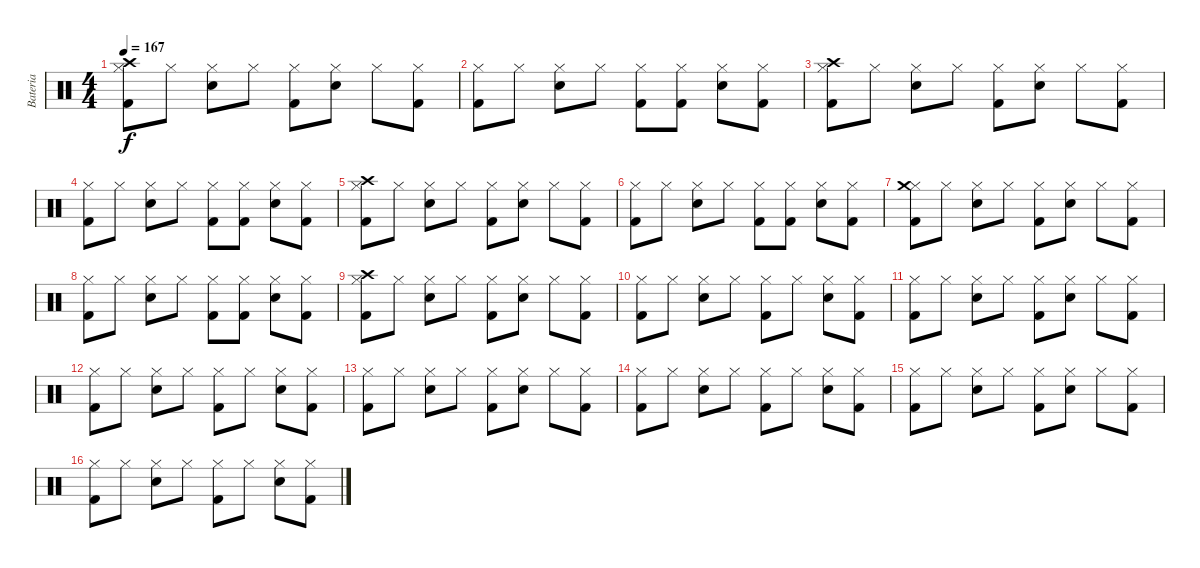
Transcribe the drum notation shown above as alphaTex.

\track ("Bateria" "Bateria") {instrument percussion}
\staff {score}
\articulation defaults
\ts (4 4)
\tempo 167
\clef neutral
\ks c
("Kick (hit) 2" "Hi-Hat (closed)" "Crash high (hit)").8{dy f} "Hi-Hat (closed)".8 ("Snare (hit) 2" "Hi-Hat (closed)").8 "Hi-Hat (closed)".8 ("Kick (hit) 2" "Hi-Hat (closed)").8 ("Snare (hit) 2" "Hi-Hat (closed)").8 "Hi-Hat (closed)".8 ("Kick (hit) 2" "Hi-Hat (closed)").8 |
("Kick (hit) 2" "Hi-Hat (closed)").8 "Hi-Hat (closed)".8 ("Snare (hit) 2" "Hi-Hat (closed)").8 "Hi-Hat (closed)".8 ("Kick (hit) 2" "Hi-Hat (closed)").8 ("Kick (hit) 2" "Hi-Hat (closed)").8 ("Snare (hit) 2" "Hi-Hat (closed)").8 ("Kick (hit) 2" "Hi-Hat (closed)").8 |
("Kick (hit) 2" "Hi-Hat (closed)" "Crash high (hit)").8 "Hi-Hat (closed)".8 ("Snare (hit) 2" "Hi-Hat (closed)").8 "Hi-Hat (closed)".8 ("Kick (hit) 2" "Hi-Hat (closed)").8 ("Snare (hit) 2" "Hi-Hat (closed)").8 "Hi-Hat (closed)".8 ("Kick (hit) 2" "Hi-Hat (closed)").8 |
("Kick (hit) 2" "Hi-Hat (closed)").8 "Hi-Hat (closed)".8 ("Snare (hit) 2" "Hi-Hat (closed)").8 "Hi-Hat (closed)".8 ("Kick (hit) 2" "Hi-Hat (closed)").8 ("Kick (hit) 2" "Hi-Hat (closed)").8 ("Snare (hit) 2" "Hi-Hat (closed)").8 ("Kick (hit) 2" "Hi-Hat (closed)").8 |
("Kick (hit) 2" "Hi-Hat (closed)" "Crash high (hit)").8 "Hi-Hat (closed)".8 ("Snare (hit) 2" "Hi-Hat (closed)").8 "Hi-Hat (closed)".8 ("Kick (hit) 2" "Hi-Hat (closed)").8 ("Snare (hit) 2" "Hi-Hat (closed)").8 "Hi-Hat (closed)".8 ("Kick (hit) 2" "Hi-Hat (closed)").8 |
("Kick (hit) 2" "Hi-Hat (closed)").8 "Hi-Hat (closed)".8 ("Snare (hit) 2" "Hi-Hat (closed)").8 "Hi-Hat (closed)".8 ("Kick (hit) 2" "Hi-Hat (closed)").8 ("Kick (hit) 2" "Hi-Hat (closed)").8 ("Snare (hit) 2" "Hi-Hat (closed)").8 ("Kick (hit) 2" "Hi-Hat (closed)").8 |
("Kick (hit) 2" "Hi-Hat (closed)" "Crash medium (hit)").8 "Hi-Hat (closed)".8 ("Snare (hit) 2" "Hi-Hat (closed)").8 "Hi-Hat (closed)".8 ("Kick (hit) 2" "Hi-Hat (closed)").8 ("Snare (hit) 2" "Hi-Hat (closed)").8 "Hi-Hat (closed)".8 ("Kick (hit) 2" "Hi-Hat (closed)").8 |
("Kick (hit) 2" "Hi-Hat (closed)").8 "Hi-Hat (closed)".8 ("Snare (hit) 2" "Hi-Hat (closed)").8 "Hi-Hat (closed)".8 ("Kick (hit) 2" "Hi-Hat (closed)").8 ("Kick (hit) 2" "Hi-Hat (closed)").8 ("Snare (hit) 2" "Hi-Hat (closed)").8 ("Kick (hit) 2" "Hi-Hat (closed)").8 |
("Kick (hit) 2" "Hi-Hat (closed)" "Crash high (hit)").8 "Hi-Hat (closed)".8 ("Snare (hit) 2" "Hi-Hat (closed)").8 "Hi-Hat (closed)".8 ("Kick (hit) 2" "Hi-Hat (closed)").8 ("Snare (hit) 2" "Hi-Hat (closed)").8 "Hi-Hat (closed)".8 ("Kick (hit) 2" "Hi-Hat (closed)").8 |
("Kick (hit) 2" "Hi-Hat (closed)").8 "Hi-Hat (closed)".8 ("Snare (hit) 2" "Hi-Hat (closed)").8 "Hi-Hat (closed)".8 ("Kick (hit) 2" "Hi-Hat (closed)").8 "Hi-Hat (closed)".8 ("Snare (hit) 2" "Hi-Hat (closed)").8 ("Kick (hit) 2" "Hi-Hat (closed)").8 |
("Kick (hit) 2" "Hi-Hat (closed)").8 "Hi-Hat (closed)".8 ("Snare (hit) 2" "Hi-Hat (closed)").8 "Hi-Hat (closed)".8 ("Kick (hit) 2" "Hi-Hat (closed)").8 ("Snare (hit) 2" "Hi-Hat (closed)").8 "Hi-Hat (closed)".8 ("Kick (hit) 2" "Hi-Hat (closed)").8 |
("Kick (hit) 2" "Hi-Hat (closed)").8 "Hi-Hat (closed)".8 ("Snare (hit) 2" "Hi-Hat (closed)").8 "Hi-Hat (closed)".8 ("Kick (hit) 2" "Hi-Hat (closed)").8 "Hi-Hat (closed)".8 ("Snare (hit) 2" "Hi-Hat (closed)").8 ("Kick (hit) 2" "Hi-Hat (closed)").8 |
("Kick (hit) 2" "Hi-Hat (closed)").8 "Hi-Hat (closed)".8 ("Snare (hit) 2" "Hi-Hat (closed)").8 "Hi-Hat (closed)".8 ("Kick (hit) 2" "Hi-Hat (closed)").8 ("Snare (hit) 2" "Hi-Hat (closed)").8 "Hi-Hat (closed)".8 ("Kick (hit) 2" "Hi-Hat (closed)").8 |
("Kick (hit) 2" "Hi-Hat (closed)").8 "Hi-Hat (closed)".8 ("Snare (hit) 2" "Hi-Hat (closed)").8 "Hi-Hat (closed)".8 ("Kick (hit) 2" "Hi-Hat (closed)").8 "Hi-Hat (closed)".8 ("Snare (hit) 2" "Hi-Hat (closed)").8 ("Kick (hit) 2" "Hi-Hat (closed)").8 |
("Kick (hit) 2" "Hi-Hat (closed)").8 "Hi-Hat (closed)".8 ("Snare (hit) 2" "Hi-Hat (closed)").8 "Hi-Hat (closed)".8 ("Kick (hit) 2" "Hi-Hat (closed)").8 ("Snare (hit) 2" "Hi-Hat (closed)").8 "Hi-Hat (closed)".8 ("Kick (hit) 2" "Hi-Hat (closed)").8 |
("Kick (hit) 2" "Hi-Hat (closed)").8 "Hi-Hat (closed)".8 ("Snare (hit) 2" "Hi-Hat (closed)").8 "Hi-Hat (closed)".8 ("Kick (hit) 2" "Hi-Hat (closed)").8 "Hi-Hat (closed)".8 ("Snare (hit) 2" "Hi-Hat (closed)").8 ("Kick (hit) 2" "Hi-Hat (closed)").8
